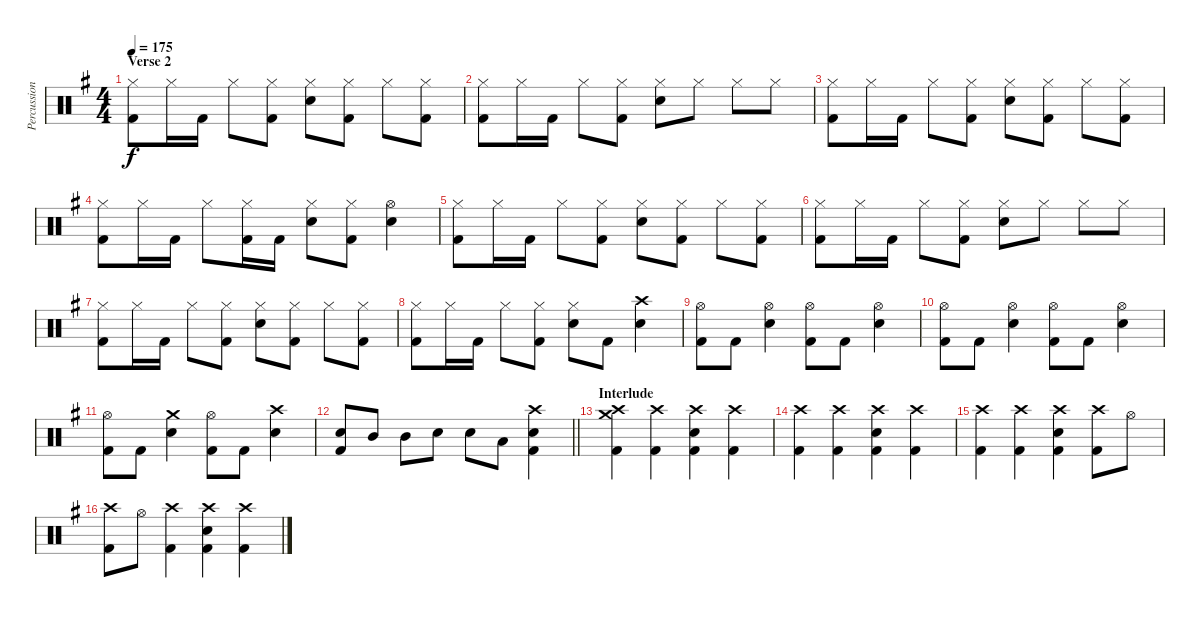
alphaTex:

\track ("Percussion" "Percussion") {instrument percussion}
\staff {score}
\articulation defaults
\ts (4 4)
\section ("" "Verse 2")
\tempo 175
\clef neutral
\ks g
("Hi-Hat (closed)" "Kick (hit) 2").8{dy f} "Hi-Hat (closed)".16 "Kick (hit) 2".16 "Hi-Hat (closed)".8 ("Hi-Hat (closed)" "Kick (hit) 2").8 ("Hi-Hat (closed)" "Snare (hit) 2").8 ("Hi-Hat (closed)" "Kick (hit) 2").8 "Hi-Hat (closed)".8 ("Hi-Hat (closed)" "Kick (hit) 2").8 |
("Hi-Hat (closed)" "Kick (hit) 2").8 "Hi-Hat (closed)".16 "Kick (hit) 2".16 "Hi-Hat (closed)".8 ("Hi-Hat (closed)" "Kick (hit) 2").8 ("Hi-Hat (closed)" "Snare (hit) 2").8 "Hi-Hat (closed)".8 "Hi-Hat (closed)".8 "Hi-Hat (closed)".8 |
("Hi-Hat (closed)" "Kick (hit) 2").8 "Hi-Hat (closed)".16 "Kick (hit) 2".16 "Hi-Hat (closed)".8 ("Hi-Hat (closed)" "Kick (hit) 2").8 ("Hi-Hat (closed)" "Snare (hit) 2").8 ("Hi-Hat (closed)" "Kick (hit) 2").8 "Hi-Hat (closed)".8 ("Hi-Hat (closed)" "Kick (hit) 2").8 |
("Hi-Hat (closed)" "Kick (hit) 2").8 "Hi-Hat (closed)".16 "Kick (hit) 2".16 "Hi-Hat (closed)".8 ("Hi-Hat (closed)" "Kick (hit) 2").16 "Kick (hit) 2".16 ("Hi-Hat (closed)" "Snare (hit) 2").8 ("Hi-Hat (closed)" "Kick (hit) 2").8 ("Hi-Hat (open)" "Snare (hit) 2").4 |
("Hi-Hat (closed)" "Kick (hit) 2").8 "Hi-Hat (closed)".16 "Kick (hit) 2".16 "Hi-Hat (closed)".8 ("Hi-Hat (closed)" "Kick (hit) 2").8 ("Hi-Hat (closed)" "Snare (hit) 2").8 ("Hi-Hat (closed)" "Kick (hit) 2").8 "Hi-Hat (closed)".8 ("Hi-Hat (closed)" "Kick (hit) 2").8 |
("Hi-Hat (closed)" "Kick (hit) 2").8 "Hi-Hat (closed)".16 "Kick (hit) 2".16 "Hi-Hat (closed)".8 ("Hi-Hat (closed)" "Kick (hit) 2").8 ("Hi-Hat (closed)" "Snare (hit) 2").8 "Hi-Hat (closed)".8 "Hi-Hat (closed)".8 "Hi-Hat (closed)".8 |
("Hi-Hat (closed)" "Kick (hit) 2").8 "Hi-Hat (closed)".16 "Kick (hit) 2".16 "Hi-Hat (closed)".8 ("Hi-Hat (closed)" "Kick (hit) 2").8 ("Hi-Hat (closed)" "Snare (hit) 2").8 ("Hi-Hat (closed)" "Kick (hit) 2").8 "Hi-Hat (closed)".8 ("Hi-Hat (closed)" "Kick (hit) 2").8 |
("Hi-Hat (closed)" "Kick (hit) 2").8 "Hi-Hat (closed)".16 "Kick (hit) 2".16 "Hi-Hat (closed)".8 ("Hi-Hat (closed)" "Kick (hit) 2").8 ("Hi-Hat (closed)" "Snare (hit) 2").8 "Kick (hit) 2".8 ("Crash high (hit)" "Snare (hit) 2").4 |
("Hi-Hat (open)" "Kick (hit) 2").8 "Kick (hit) 2".8 ("Hi-Hat (open)" "Snare (hit) 2").4 ("Hi-Hat (open)" "Kick (hit) 2").8 "Kick (hit) 2".8 ("Hi-Hat (open)" "Snare (hit) 2").4 |
("Hi-Hat (open)" "Kick (hit) 2").8 "Kick (hit) 2".8 ("Hi-Hat (open)" "Snare (hit) 2").4 ("Hi-Hat (open)" "Kick (hit) 2").8 "Kick (hit) 2".8 ("Hi-Hat (open)" "Snare (hit) 2").4 |
("Hi-Hat (open)" "Kick (hit) 2").8 "Kick (hit) 2".8 ("Crash medium (hit)" "Snare (hit) 2").4 ("Hi-Hat (open)" "Kick (hit) 2").8 "Kick (hit) 2".8 ("Crash high (hit)" "Snare (hit) 2").4 |
\barLineRight lightlight
("Snare (hit) 2" "Kick (hit) 2").8 "Mid Tom (hit)".8 "Mid Tom (hit)".8 "Snare (hit) 2".8 "Snare (hit) 2".8 "Low Floor Tom (hit)".8 ("Crash high (hit)" "Snare (hit) 2" "Kick (hit) 2").4 |
\section ("" "Interlude")
("Crash medium (hit)" "Crash high (hit)" "Kick (hit) 2").4 ("Crash high (hit)" "Kick (hit) 2").4 ("Crash high (hit)" "Snare (hit) 2" "Kick (hit) 2").4 ("Crash high (hit)" "Kick (hit) 2").4 |
("Crash high (hit)" "Kick (hit) 2").4 ("Crash high (hit)" "Kick (hit) 2").4 ("Crash high (hit)" "Snare (hit) 2" "Kick (hit) 2").4 ("Crash high (hit)" "Kick (hit) 2").4 |
("Crash high (hit)" "Kick (hit) 2").4 ("Crash high (hit)" "Kick (hit) 2").4 ("Crash high (hit)" "Snare (hit) 2" "Kick (hit) 2").4 ("Crash high (hit)" "Kick (hit) 2").8 "Hi-Hat (open)".8 |
("Crash high (hit)" "Kick (hit) 2").8 "Hi-Hat (open)".8 ("Crash high (hit)" "Kick (hit) 2").4 ("Crash high (hit)" "Snare (hit) 2" "Kick (hit) 2").4 ("Crash high (hit)" "Kick (hit) 2").4
